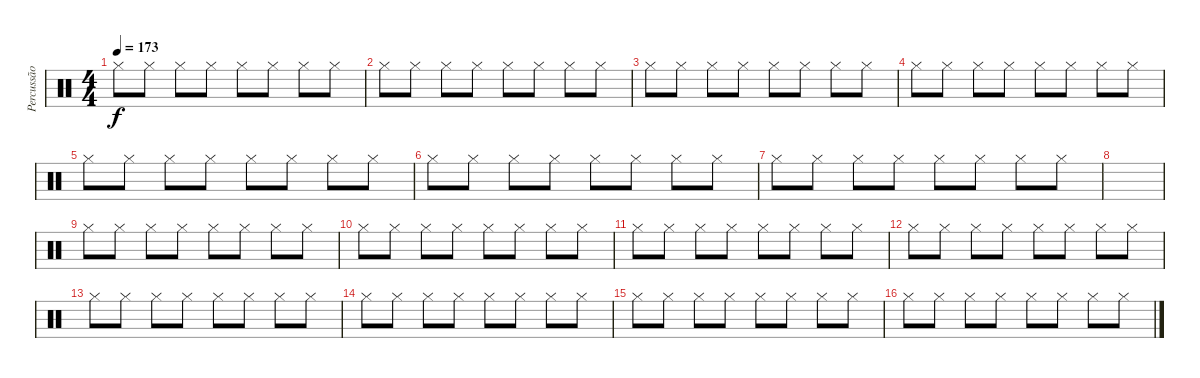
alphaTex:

\track ("Percussão" "Percussão") {instrument percussion}
\staff {score}
\articulation defaults
\ts (4 4)
\tempo 173
\clef neutral
\ks c "Hi-Hat (closed)".8{dy f} "Hi-Hat (closed)".8 "Hi-Hat (closed)".8 "Hi-Hat (closed)".8 "Hi-Hat (closed)".8 "Hi-Hat (closed)".8 "Hi-Hat (closed)".8 "Hi-Hat (closed)".8
|
"Hi-Hat (closed)".8 "Hi-Hat (closed)".8 "Hi-Hat (closed)".8 "Hi-Hat (closed)".8 "Hi-Hat (closed)".8 "Hi-Hat (closed)".8 "Hi-Hat (closed)".8 "Hi-Hat (closed)".8 |
"Hi-Hat (closed)".8 "Hi-Hat (closed)".8 "Hi-Hat (closed)".8 "Hi-Hat (closed)".8 "Hi-Hat (closed)".8 "Hi-Hat (closed)".8 "Hi-Hat (closed)".8 "Hi-Hat (closed)".8 |
"Hi-Hat (closed)".8 "Hi-Hat (closed)".8 "Hi-Hat (closed)".8 "Hi-Hat (closed)".8 "Hi-Hat (closed)".8 "Hi-Hat (closed)".8 "Hi-Hat (closed)".8 "Hi-Hat (closed)".8 |
"Hi-Hat (closed)".8 "Hi-Hat (closed)".8 "Hi-Hat (closed)".8 "Hi-Hat (closed)".8 "Hi-Hat (closed)".8 "Hi-Hat (closed)".8 "Hi-Hat (closed)".8 "Hi-Hat (closed)".8 |
"Hi-Hat (closed)".8 "Hi-Hat (closed)".8 "Hi-Hat (closed)".8 "Hi-Hat (closed)".8 "Hi-Hat (closed)".8 "Hi-Hat (closed)".8 "Hi-Hat (closed)".8 "Hi-Hat (closed)".8 |
"Hi-Hat (closed)".8 "Hi-Hat (closed)".8 "Hi-Hat (closed)".8 "Hi-Hat (closed)".8 "Hi-Hat (closed)".8 "Hi-Hat (closed)".8 "Hi-Hat (closed)".8 "Hi-Hat (closed)".8 |
|
"Hi-Hat (closed)".8 "Hi-Hat (closed)".8 "Hi-Hat (closed)".8 "Hi-Hat (closed)".8 "Hi-Hat (closed)".8 "Hi-Hat (closed)".8 "Hi-Hat (closed)".8 "Hi-Hat (closed)".8 |
"Hi-Hat (closed)".8 "Hi-Hat (closed)".8 "Hi-Hat (closed)".8 "Hi-Hat (closed)".8 "Hi-Hat (closed)".8 "Hi-Hat (closed)".8 "Hi-Hat (closed)".8 "Hi-Hat (closed)".8 |
"Hi-Hat (closed)".8 "Hi-Hat (closed)".8 "Hi-Hat (closed)".8 "Hi-Hat (closed)".8 "Hi-Hat (closed)".8 "Hi-Hat (closed)".8 "Hi-Hat (closed)".8 "Hi-Hat (closed)".8 |
"Hi-Hat (closed)".8 "Hi-Hat (closed)".8 "Hi-Hat (closed)".8 "Hi-Hat (closed)".8 "Hi-Hat (closed)".8 "Hi-Hat (closed)".8 "Hi-Hat (closed)".8 "Hi-Hat (closed)".8 |
"Hi-Hat (closed)".8 "Hi-Hat (closed)".8 "Hi-Hat (closed)".8 "Hi-Hat (closed)".8 "Hi-Hat (closed)".8 "Hi-Hat (closed)".8 "Hi-Hat (closed)".8 "Hi-Hat (closed)".8 |
"Hi-Hat (closed)".8 "Hi-Hat (closed)".8 "Hi-Hat (closed)".8 "Hi-Hat (closed)".8 "Hi-Hat (closed)".8 "Hi-Hat (closed)".8 "Hi-Hat (closed)".8 "Hi-Hat (closed)".8 |
"Hi-Hat (closed)".8 "Hi-Hat (closed)".8 "Hi-Hat (closed)".8 "Hi-Hat (closed)".8 "Hi-Hat (closed)".8 "Hi-Hat (closed)".8 "Hi-Hat (closed)".8 "Hi-Hat (closed)".8 |
"Hi-Hat (closed)".8 "Hi-Hat (closed)".8 "Hi-Hat (closed)".8 "Hi-Hat (closed)".8 "Hi-Hat (closed)".8 "Hi-Hat (closed)".8 "Hi-Hat (closed)".8 "Hi-Hat (closed)".8
